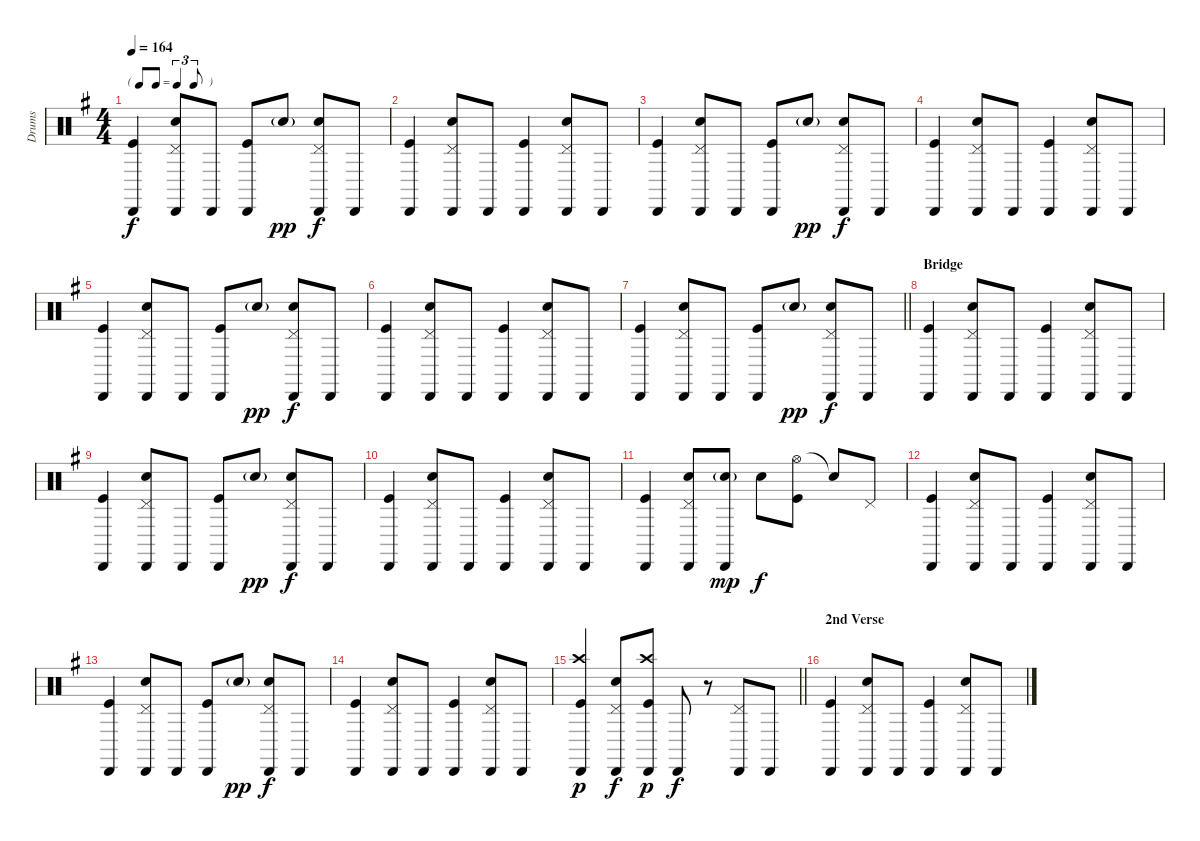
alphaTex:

\track ("Drums" "Drums") {instrument percussion}
\staff {score}
\articulation defaults
\ts (4 4)
\tf triplet8th
\tempo 164
\clef neutral
\ks g
("Cabasa (hit)" "Kick (hit)").4{dy f} ("Pedal Hi-Hat (hit)" "Cabasa (hit)" "Snare (hit) 2").8 "Cabasa (hit)".8 ("Cabasa (hit)" "Kick (hit)").8 "Snare (hit) 2"{g}.8{dy pp} ("Pedal Hi-Hat (hit)" "Cabasa (hit)" "Snare (hit) 2").8{dy f} "Cabasa (hit)".8 |
("Cabasa (hit)" "Kick (hit)").4 ("Pedal Hi-Hat (hit)" "Cabasa (hit)" "Snare (hit) 2").8 "Cabasa (hit)".8 ("Cabasa (hit)" "Kick (hit)").4 ("Pedal Hi-Hat (hit)" "Cabasa (hit)" "Snare (hit) 2").8 "Cabasa (hit)".8 |
("Cabasa (hit)" "Kick (hit)").4 ("Pedal Hi-Hat (hit)" "Cabasa (hit)" "Snare (hit) 2").8 "Cabasa (hit)".8 ("Cabasa (hit)" "Kick (hit)").8 "Snare (hit) 2"{g}.8{dy pp} ("Pedal Hi-Hat (hit)" "Cabasa (hit)" "Snare (hit) 2").8{dy f} "Cabasa (hit)".8 |
("Cabasa (hit)" "Kick (hit)").4 ("Pedal Hi-Hat (hit)" "Cabasa (hit)" "Snare (hit) 2").8 "Cabasa (hit)".8 ("Cabasa (hit)" "Kick (hit)").4 ("Pedal Hi-Hat (hit)" "Cabasa (hit)" "Snare (hit) 2").8 "Cabasa (hit)".8 |
("Cabasa (hit)" "Kick (hit)").4 ("Pedal Hi-Hat (hit)" "Cabasa (hit)" "Snare (hit) 2").8 "Cabasa (hit)".8 ("Cabasa (hit)" "Kick (hit)").8 "Snare (hit) 2"{g}.8{dy pp} ("Pedal Hi-Hat (hit)" "Cabasa (hit)" "Snare (hit) 2").8{dy f} "Cabasa (hit)".8 |
("Cabasa (hit)" "Kick (hit)").4 ("Pedal Hi-Hat (hit)" "Cabasa (hit)" "Snare (hit) 2").8 "Cabasa (hit)".8 ("Cabasa (hit)" "Kick (hit)").4 ("Pedal Hi-Hat (hit)" "Cabasa (hit)" "Snare (hit) 2").8 "Cabasa (hit)".8 |
\barLineRight lightlight
("Cabasa (hit)" "Kick (hit)").4 ("Pedal Hi-Hat (hit)" "Cabasa (hit)" "Snare (hit) 2").8 "Cabasa (hit)".8 ("Cabasa (hit)" "Kick (hit)").8 "Snare (hit) 2"{g}.8{dy pp} ("Pedal Hi-Hat (hit)" "Cabasa (hit)" "Snare (hit) 2").8{dy f} "Cabasa (hit)".8 |
\section ("" "Bridge")
("Cabasa (hit)" "Kick (hit)").4 ("Pedal Hi-Hat (hit)" "Cabasa (hit)" "Snare (hit) 2").8 "Cabasa (hit)".8 ("Cabasa (hit)" "Kick (hit)").4 ("Pedal Hi-Hat (hit)" "Cabasa (hit)" "Snare (hit) 2").8 "Cabasa (hit)".8 |
("Cabasa (hit)" "Kick (hit)").4 ("Pedal Hi-Hat (hit)" "Cabasa (hit)" "Snare (hit) 2").8 "Cabasa (hit)".8 ("Cabasa (hit)" "Kick (hit)").8 "Snare (hit) 2"{g}.8{dy pp} ("Pedal Hi-Hat (hit)" "Cabasa (hit)" "Snare (hit) 2").8{dy f} "Cabasa (hit)".8 |
("Cabasa (hit)" "Kick (hit)").4 ("Pedal Hi-Hat (hit)" "Cabasa (hit)" "Snare (hit) 2").8 "Cabasa (hit)".8 ("Cabasa (hit)" "Kick (hit)").4 ("Pedal Hi-Hat (hit)" "Cabasa (hit)" "Snare (hit) 2").8 "Cabasa (hit)".8 |
("Cabasa (hit)" "Kick (hit)").4 ("Pedal Hi-Hat (hit)" "Cabasa (hit)" "Snare (hit) 2").8 ("Cabasa (hit)" "Snare (hit) 2"{g}).8{dy mp} "Snare (hit) 2".8{dy f} ("Hi-Hat (open)" "Kick (hit)").8 "Snare (hit)"{t}.8 "Pedal Hi-Hat (hit)".8 |
("Cabasa (hit)" "Kick (hit)").4 ("Pedal Hi-Hat (hit)" "Cabasa (hit)" "Snare (hit) 2").8 "Cabasa (hit)".8 ("Cabasa (hit)" "Kick (hit)").4 ("Pedal Hi-Hat (hit)" "Cabasa (hit)" "Snare (hit) 2").8 "Cabasa (hit)".8 |
("Cabasa (hit)" "Kick (hit)").4 ("Pedal Hi-Hat (hit)" "Cabasa (hit)" "Snare (hit) 2").8 "Cabasa (hit)".8 ("Cabasa (hit)" "Kick (hit)").8 "Snare (hit) 2"{g}.8{dy pp} ("Pedal Hi-Hat (hit)" "Cabasa (hit)" "Snare (hit) 2").8{dy f} "Cabasa (hit)".8 |
("Cabasa (hit)" "Kick (hit)").4 ("Pedal Hi-Hat (hit)" "Cabasa (hit)" "Snare (hit) 2").8 "Cabasa (hit)".8 ("Cabasa (hit)" "Kick (hit)").4 ("Pedal Hi-Hat (hit)" "Cabasa (hit)" "Snare (hit) 2").8 "Cabasa (hit)".8 |
\barLineRight lightlight
("Crash high (hit)" "Cabasa (hit)" "Kick (hit)").4{dy p} ("Pedal Hi-Hat (hit)" "Cabasa (hit)" "Snare (hit) 2").8{dy f} ("Crash high (hit)" "Cabasa (hit)" "Kick (hit)").8{dy p} "Cabasa (hit)".8{dy f} r.8 ("Pedal Hi-Hat (hit)" "Cabasa (hit)").8 "Cabasa (hit)".8 |
\section ("" "2nd Verse")
("Cabasa (hit)" "Kick (hit)").4 ("Pedal Hi-Hat (hit)" "Cabasa (hit)" "Snare (hit) 2").8 "Cabasa (hit)".8 ("Cabasa (hit)" "Kick (hit)").4 ("Pedal Hi-Hat (hit)" "Cabasa (hit)" "Snare (hit) 2").8 "Cabasa (hit)".8
